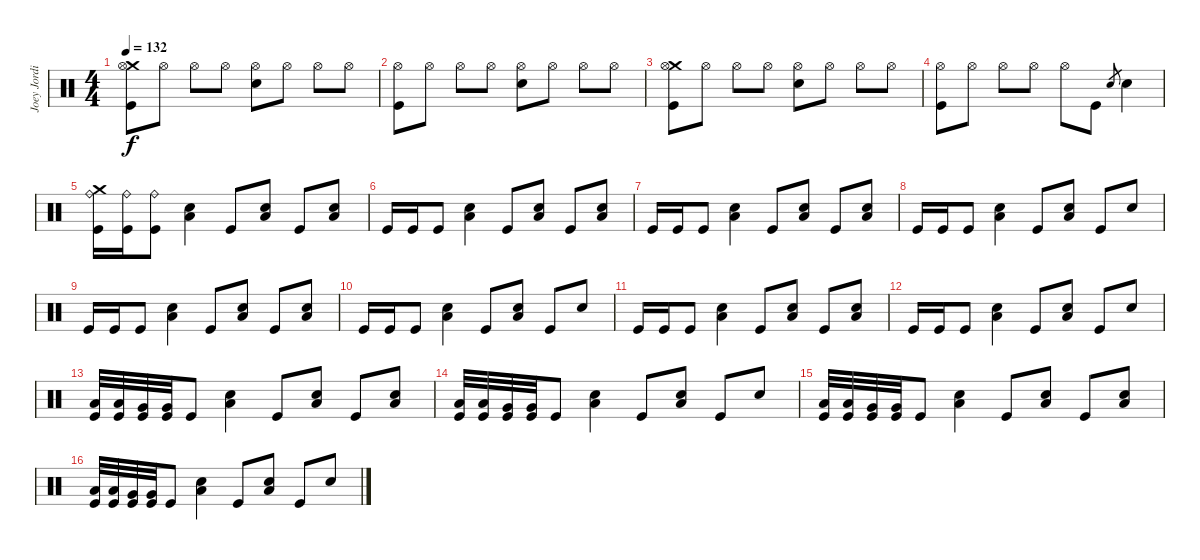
\track ("Joey Jordison" "Joey Jordi") {instrument percussion}
\staff {score}
\articulation defaults
\ts (4 4)
\tempo 132
\clef neutral
\ks c
("Kick (hit)" "Crash medium (hit)" "Hi-Hat (open)").8{dy f} "Hi-Hat (open)".8 "Hi-Hat (open)".8 "Hi-Hat (open)".8 ("Snare (hit) 2" "Hi-Hat (open)").8 "Hi-Hat (open)".8 "Hi-Hat (open)".8 "Hi-Hat (open)".8 |
("Kick (hit)" "Hi-Hat (open)").8 "Hi-Hat (open)".8 "Hi-Hat (open)".8 "Hi-Hat (open)".8 ("Snare (hit) 2" "Hi-Hat (open)").8 "Hi-Hat (open)".8 "Hi-Hat (open)".8 "Hi-Hat (open)".8 |
("Kick (hit)" "Crash medium (hit)" "Hi-Hat (open)").8 "Hi-Hat (open)".8 "Hi-Hat (open)".8 "Hi-Hat (open)".8 ("Snare (hit) 2" "Hi-Hat (open)").8 "Hi-Hat (open)".8 "Hi-Hat (open)".8 "Hi-Hat (open)".8 |
("Kick (hit)" "Hi-Hat (open)").8 "Hi-Hat (open)".8 "Hi-Hat (open)".8 "Hi-Hat (open)".8 "Hi-Hat (open)".8 "Kick (hit)".8 "Snare (hit)".8{gr} "Snare (hit) 2".4 |
("Kick (hit)" "Crash medium (hit)" "Ride (bell)").16 ("Kick (hit)" "Ride (bell)").16 ("Kick (hit)" "Ride (bell)").8 ("Snare (hit) 2" "Low Floor Tom (hit)").4 "Kick (hit)".8 ("Snare (hit) 2" "Low Floor Tom (hit)").8 "Kick (hit)".8 ("Snare (hit) 2" "Low Floor Tom (hit)").8 |
"Kick (hit)".16 "Kick (hit)".16 "Kick (hit)".8 ("Snare (hit) 2" "Low Floor Tom (hit)").4 "Kick (hit)".8 ("Snare (hit) 2" "Low Floor Tom (hit)").8 "Kick (hit)".8 ("Snare (hit) 2" "Low Floor Tom (hit)").8 |
"Kick (hit)".16 "Kick (hit)".16 "Kick (hit)".8 ("Snare (hit) 2" "Low Floor Tom (hit)").4 "Kick (hit)".8 ("Snare (hit) 2" "Low Floor Tom (hit)").8 "Kick (hit)".8 ("Snare (hit) 2" "Low Floor Tom (hit)").8 |
"Kick (hit)".16 "Kick (hit)".16 "Kick (hit)".8 ("Snare (hit) 2" "Low Floor Tom (hit)").4 "Kick (hit)".8 ("Snare (hit) 2" "Low Floor Tom (hit)").8 "Kick (hit)".8 "Snare (hit) 2".8 |
"Kick (hit)".16 "Kick (hit)".16 "Kick (hit)".8 ("Snare (hit) 2" "Low Floor Tom (hit)").4 "Kick (hit)".8 ("Snare (hit) 2" "Low Floor Tom (hit)").8 "Kick (hit)".8 ("Snare (hit) 2" "Low Floor Tom (hit)").8 |
"Kick (hit)".16 "Kick (hit)".16 "Kick (hit)".8 ("Snare (hit) 2" "Low Floor Tom (hit)").4 "Kick (hit)".8 ("Snare (hit) 2" "Low Floor Tom (hit)").8 "Kick (hit)".8 "Snare (hit) 2".8 |
"Kick (hit)".16 "Kick (hit)".16 "Kick (hit)".8 ("Snare (hit) 2" "Low Floor Tom (hit)").4 "Kick (hit)".8 ("Snare (hit) 2" "Low Floor Tom (hit)").8 "Kick (hit)".8 ("Snare (hit) 2" "Low Floor Tom (hit)").8 |
"Kick (hit)".16 "Kick (hit)".16 "Kick (hit)".8 ("Snare (hit) 2" "Low Floor Tom (hit)").4 "Kick (hit)".8 ("Snare (hit) 2" "Low Floor Tom (hit)").8 "Kick (hit)".8 "Snare (hit) 2".8 |
("Kick (hit)" "Low Tom (hit)").32 ("Kick (hit)" "Low Tom (hit)").32 ("Kick (hit)" "Very Low Tom (hit)").32 ("Kick (hit)" "Very Low Tom (hit)").32 "Kick (hit)".8 ("Snare (hit) 2" "Low Floor Tom (hit)").4 "Kick (hit)".8 ("Snare (hit) 2" "Low Floor Tom (hit)").8 "Kick (hit)".8 ("Snare (hit) 2" "Low Floor Tom (hit)").8 |
("Kick (hit)" "Low Tom (hit)").32 ("Kick (hit)" "Low Tom (hit)").32 ("Kick (hit)" "Very Low Tom (hit)").32 ("Kick (hit)" "Very Low Tom (hit)").32 "Kick (hit)".8 ("Snare (hit) 2" "Low Floor Tom (hit)").4 "Kick (hit)".8 ("Snare (hit) 2" "Low Floor Tom (hit)").8 "Kick (hit)".8 "Snare (hit) 2".8 |
("Kick (hit)" "Low Tom (hit)").32 ("Kick (hit)" "Low Tom (hit)").32 ("Kick (hit)" "Very Low Tom (hit)").32 ("Kick (hit)" "Very Low Tom (hit)").32 "Kick (hit)".8 ("Snare (hit) 2" "Low Floor Tom (hit)").4 "Kick (hit)".8 ("Snare (hit) 2" "Low Floor Tom (hit)").8 "Kick (hit)".8 ("Snare (hit) 2" "Low Floor Tom (hit)").8 |
("Kick (hit)" "Low Tom (hit)").32 ("Kick (hit)" "Low Tom (hit)").32 ("Kick (hit)" "Very Low Tom (hit)").32 ("Kick (hit)" "Very Low Tom (hit)").32 "Kick (hit)".8 ("Snare (hit) 2" "Low Floor Tom (hit)").4 "Kick (hit)".8 ("Snare (hit) 2" "Low Floor Tom (hit)").8 "Kick (hit)".8 "Snare (hit) 2".8
